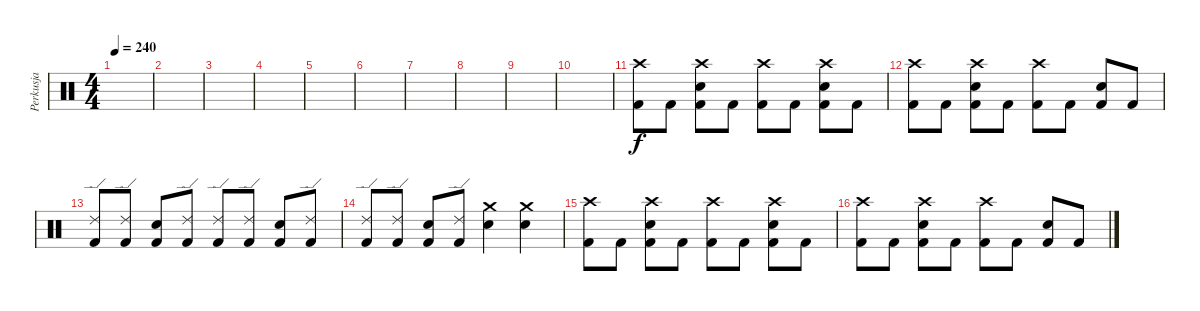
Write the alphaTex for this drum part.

\track ("Perkusja" "Perkusja") {instrument percussion}
\staff {score}
\articulation defaults
\ts (4 4)
\tempo 240
\clef neutral
\ks c
|
|
|
|
|
|
|
|
|
|
("Crash high (hit)" "Kick (hit) 2").8 "Kick (hit) 2".8 ("Crash high (hit)" "Snare (hit) 2" "Kick (hit) 2").8 "Kick (hit) 2".8 ("Crash high (hit)" "Kick (hit) 2").8 "Kick (hit) 2".8 ("Crash high (hit)" "Snare (hit) 2" "Kick (hit) 2").8 "Kick (hit) 2".8 |
("Crash high (hit)" "Kick (hit) 2").8 "Kick (hit) 2".8 ("Crash high (hit)" "Snare (hit) 2" "Kick (hit) 2").8 "Kick (hit) 2".8 ("Crash high (hit)" "Kick (hit) 2").8 "Kick (hit) 2".8 ("Snare (hit) 2" "Kick (hit) 2").8 "Kick (hit) 2".8 |
("Ride (edge) 2" "Kick (hit) 2").8 ("Ride (edge) 2" "Kick (hit) 2").8 ("Snare (hit) 2" "Kick (hit) 2").8 ("Ride (edge) 2" "Kick (hit) 2").8 ("Ride (edge) 2" "Kick (hit) 2").8 ("Ride (edge) 2" "Kick (hit) 2").8 ("Snare (hit) 2" "Kick (hit) 2").8 ("Ride (edge) 2" "Kick (hit) 2").8 |
("Ride (edge) 2" "Kick (hit) 2").8 ("Ride (edge) 2" "Kick (hit) 2").8 ("Snare (hit) 2" "Kick (hit) 2").8 ("Ride (edge) 2" "Kick (hit) 2").8 ("Crash medium (hit)" "Snare (hit) 2").4 ("Crash medium (hit)" "Snare (hit) 2").4 |
("Crash high (hit)" "Kick (hit) 2").8 "Kick (hit) 2".8 ("Crash high (hit)" "Snare (hit) 2" "Kick (hit) 2").8 "Kick (hit) 2".8 ("Crash high (hit)" "Kick (hit) 2").8 "Kick (hit) 2".8 ("Crash high (hit)" "Snare (hit) 2" "Kick (hit) 2").8 "Kick (hit) 2".8 |
("Crash high (hit)" "Kick (hit) 2").8 "Kick (hit) 2".8 ("Crash high (hit)" "Snare (hit) 2" "Kick (hit) 2").8 "Kick (hit) 2".8 ("Crash high (hit)" "Kick (hit) 2").8 "Kick (hit) 2".8 ("Snare (hit) 2" "Kick (hit) 2").8 "Kick (hit) 2".8
